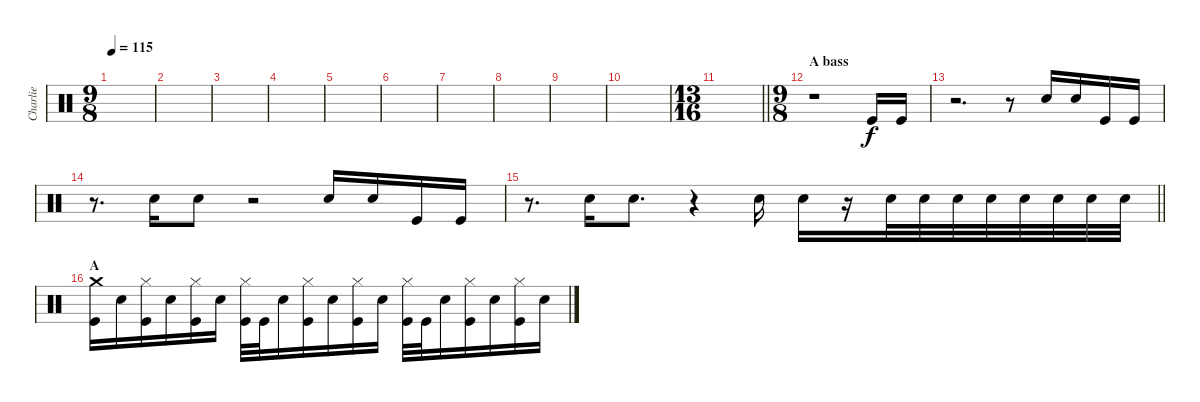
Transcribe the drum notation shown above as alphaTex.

\track ("Charlie" "Charlie") {instrument percussion}
\staff {score}
\articulation defaults
\ts (9 8)
\tempo 115
\clef neutral
\ks c
|
|
|
|
|
|
|
|
|
|
\ts (13 16)
\barLineRight lightlight
|
\ts (9 8)
\section ("" "A bass")
r.1 "Kick (hit)".16 "Kick (hit)".16 |
r.2{d} r.8 "Snare (hit) 2".16 "Snare (hit) 2".16 "Kick (hit)".16 "Kick (hit)".16 |
r.8{d} "Snare (hit) 2".16 "Snare (hit) 2".8 r.2 "Snare (hit) 2".16 "Snare (hit) 2".16 "Kick (hit)".16 "Kick (hit)".16 |
\barLineRight lightlight
r.8{d} "Snare (hit) 2".16 "Snare (hit) 2".8{d} r.4 "Snare (hit) 2".16 "Snare (hit) 2".16 r.16 "Snare (hit) 2".32 "Snare (hit) 2".32 "Snare (hit) 2".32 "Snare (hit) 2".32 "Snare (hit) 2".32 "Snare (hit) 2".32 "Snare (hit) 2".32 "Snare (hit) 2".32 |
\section ("" "A")
("Kick (hit)" "Crash medium (hit)").16 "Snare (hit) 2".16 ("Kick (hit)" "Hi-Hat (closed)").16 "Snare (hit) 2".16 ("Kick (hit)" "Hi-Hat (closed)").16 "Snare (hit) 2".16 ("Kick (hit)" "Hi-Hat (closed)").32 "Kick (hit)".32 "Snare (hit) 2".16 ("Kick (hit)" "Hi-Hat (closed)").16 "Snare (hit) 2".16 ("Kick (hit)" "Hi-Hat (closed)").16 "Snare (hit) 2".16 ("Kick (hit)" "Hi-Hat (closed)").32 "Kick (hit)".32 "Snare (hit) 2".16 ("Kick (hit)" "Hi-Hat (closed)").16 "Snare (hit) 2".16 ("Kick (hit)" "Hi-Hat (closed)").16 "Snare (hit) 2".16
